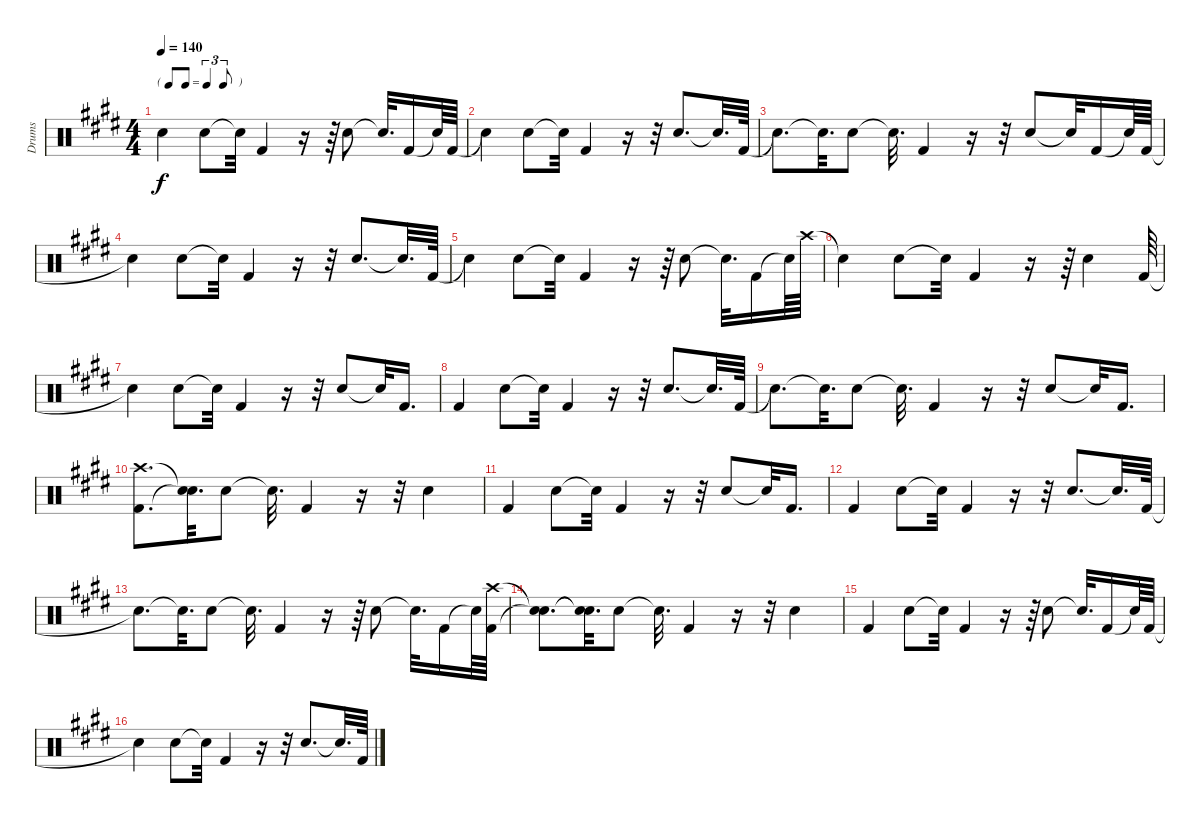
\track ("Drums" "Drums") {instrument percussion}
\staff {score}
\articulation defaults
\ts (4 4)
\tf triplet8th
\tempo 140
\clef neutral
\ks e "Snare (hit)"{t}.4{dy f} "Snare (hit) 2".8 "Snare (hit)"{t}.32 "Kick (hit) 2".4
r.16 r.64 "Snare (hit) 2".8 "Snare (hit)"{t}.32{d} "Kick (hit) 2".16 "Snare (hit)"{t}.64 "Kick (hit) 2".64 |
"Snare (hit)"{t}.4 "Snare (hit) 2".8 "Snare (hit)"{t}.32 "Kick (hit) 2".4 r.16 r.32 "Snare (hit) 2".8{d} "Snare (hit)"{t}.32{d} "Kick (hit) 2".64 |
"Snare (hit)"{t}.8{d} "Snare (hit)"{t}.32{d} "Snare (hit) 2".8 "Snare (hit)"{t}.32{d} "Kick (hit) 2".4 r.16 r.32 "Snare (hit) 2".8 "Snare (hit)"{t}.32 "Kick (hit) 2".16 "Snare (hit)"{t}.64 "Kick (hit) 2".64 |
"Snare (hit)"{t}.4 "Snare (hit) 2".8 "Snare (hit)"{t}.32 "Kick (hit) 2".4 r.16 r.32 "Snare (hit) 2".8{d} "Snare (hit)"{t}.32{d} "Kick (hit) 2".64 |
"Snare (hit)"{t}.4 "Snare (hit) 2".8 "Snare (hit)"{t}.32 "Kick (hit) 2".4 r.16 r.64 "Snare (hit) 2".8 "Snare (hit)"{t}.32{d} "Kick (hit) 2".16 "Snare (hit)"{t}.64 "Crash high (hit)".64 |
"Snare (hit)"{t}.4 "Snare (hit) 2".8 "Snare (hit)"{t}.32 "Kick (hit) 2".4 r.16 r.64 "Snare (hit) 2".4 "Kick (hit) 2".64 |
"Snare (hit)"{t}.4 "Snare (hit) 2".8 "Snare (hit)"{t}.32 "Kick (hit) 2".4 r.16 r.32 "Snare (hit) 2".8 "Snare (hit)"{t}.32 "Kick (hit) 2".16{d} |
"Kick (hit) 2".4 "Snare (hit) 2".8 "Snare (hit)"{t}.32 "Kick (hit) 2".4 r.16 r.32 "Snare (hit) 2".8{d} "Snare (hit)"{t}.32{d} "Kick (hit) 2".64 |
"Snare (hit)"{t}.8{d} "Snare (hit)"{t}.32{d} "Snare (hit) 2".8 "Snare (hit)"{t}.32{d} "Kick (hit) 2".4 r.16 r.32 "Snare (hit) 2".8 "Snare (hit)"{t}.32 "Kick (hit) 2".16{d} |
("Kick (hit) 2" "Crash high (hit)").8{d} ("Snare (hit)"{t} "Snare (hit)"{t}).32{d} "Snare (hit) 2".8 "Snare (hit)"{t}.32{d} "Kick (hit) 2".4 r.16 r.32 "Snare (hit) 2".4 |
"Kick (hit) 2".4 "Snare (hit) 2".8 "Snare (hit)"{t}.32 "Kick (hit) 2".4 r.16 r.32 "Snare (hit) 2".8 "Snare (hit)"{t}.32 "Kick (hit) 2".16{d} |
"Kick (hit) 2".4 "Snare (hit) 2".8 "Snare (hit)"{t}.32 "Kick (hit) 2".4 r.16 r.32 "Snare (hit) 2".8{d} "Snare (hit)"{t}.32{d} "Kick (hit) 2".64 |
"Snare (hit)"{t}.8{d} "Snare (hit)"{t}.32{d} "Snare (hit) 2".8 "Snare (hit)"{t}.32{d} "Kick (hit) 2".4 r.16 r.64 "Snare (hit) 2".8 "Snare (hit)"{t}.32{d} "Kick (hit) 2".16 "Snare (hit)"{t}.64 ("Kick (hit) 2" "Crash high (hit)").64 |
("Snare (hit)"{t} "Snare (hit)"{t}).8{d} ("Snare (hit)"{t} "Snare (hit)"{t}).32{d} "Snare (hit) 2".8 "Snare (hit)"{t}.32{d} "Kick (hit) 2".4 r.16 r.32 "Snare (hit) 2".4 |
"Kick (hit) 2".4 "Snare (hit) 2".8 "Snare (hit)"{t}.32 "Kick (hit) 2".4 r.16 r.64 "Snare (hit) 2".8 "Snare (hit)"{t}.32{d} "Kick (hit) 2".16 "Snare (hit)"{t}.64 "Kick (hit) 2".64 |
"Snare (hit)"{t}.4 "Snare (hit) 2".8 "Snare (hit)"{t}.32 "Kick (hit) 2".4 r.16 r.32 "Snare (hit) 2".8{d} "Snare (hit)"{t}.32{d} "Kick (hit) 2".64
